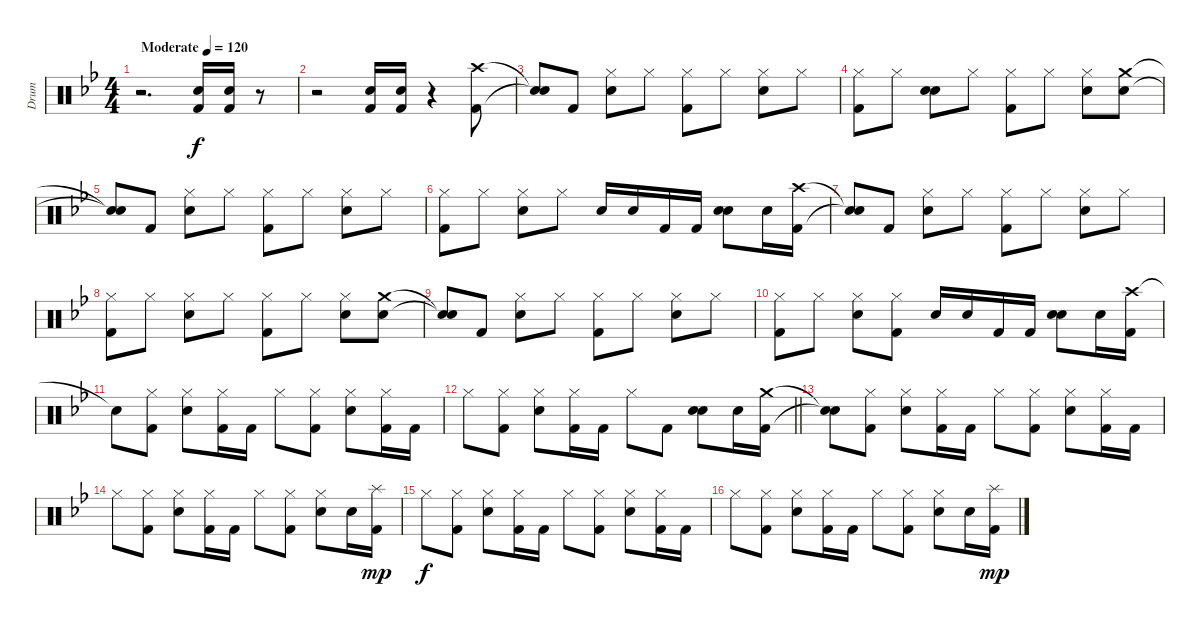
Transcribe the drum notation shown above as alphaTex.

\track ("Drum" "Drum") {instrument percussion}
\staff {score}
\articulation defaults
\ts (4 4)
\tempo (120 "Moderate")
\clef neutral
\ks gminor
r.2{d dy f} ("Electric Snare (hit)" "Kick (hit) 2").16 ("Electric Snare (hit)" "Kick (hit) 2").16 r.8 |
r.2 ("Electric Snare (hit)" "Kick (hit) 2").16 ("Electric Snare (hit)" "Kick (hit) 2").16 r.4 ("Crash high (hit)" "Kick (hit) 2").8 |
("Snare (hit)"{t} "Snare (hit)"{t}).8 "Kick (hit) 2".8 ("Hi-Hat (closed)" "Electric Snare (hit)").8 "Hi-Hat (closed)".8 ("Hi-Hat (closed)" "Kick (hit) 2").8 "Hi-Hat (closed)".8 ("Hi-Hat (closed)" "Electric Snare (hit)").8 "Hi-Hat (closed)".8 |
("Hi-Hat (closed)" "Kick (hit) 2").8 "Hi-Hat (closed)".8 ("Snare (hit)" "Electric Snare (hit)").8 "Hi-Hat (closed)".8 ("Hi-Hat (closed)" "Kick (hit) 2").8 "Hi-Hat (closed)".8 ("Hi-Hat (closed)" "Electric Snare (hit)").8 ("Crash medium (hit)" "Electric Snare (hit)").8 |
("Snare (hit)"{t} "Snare (hit)"{t}).8 "Kick (hit) 2".8 ("Hi-Hat (closed)" "Electric Snare (hit)").8 "Hi-Hat (closed)".8 ("Hi-Hat (closed)" "Kick (hit) 2").8 "Hi-Hat (closed)".8 ("Hi-Hat (closed)" "Electric Snare (hit)").8 "Hi-Hat (closed)".8 |
("Hi-Hat (closed)" "Kick (hit) 2").8 "Hi-Hat (closed)".8 ("Hi-Hat (closed)" "Electric Snare (hit)").8 "Hi-Hat (closed)".8 "Electric Snare (hit)".16 "Electric Snare (hit)".16 "Kick (hit) 2".16 "Kick (hit) 2".16 ("Electric Snare (hit)" "Electric Snare (hit)").8{bd 120} "Electric Snare (hit)".16 ("Crash high (hit)" "Kick (hit) 2").16 |
("Snare (hit)"{t} "Snare (hit)"{t}).8 "Kick (hit) 2".8 ("Hi-Hat (closed)" "Electric Snare (hit)").8 "Hi-Hat (closed)".8 ("Hi-Hat (closed)" "Kick (hit) 2").8 "Hi-Hat (closed)".8 ("Hi-Hat (closed)" "Electric Snare (hit)").8 "Hi-Hat (closed)".8 |
("Hi-Hat (closed)" "Kick (hit) 2").8 "Hi-Hat (closed)".8 ("Hi-Hat (closed)" "Electric Snare (hit)").8 "Hi-Hat (closed)".8 ("Hi-Hat (closed)" "Kick (hit) 2").8 "Hi-Hat (closed)".8 ("Hi-Hat (closed)" "Electric Snare (hit)").8 ("Crash medium (hit)" "Electric Snare (hit)").8 |
("Snare (hit)"{t} "Snare (hit)"{t}).8 "Kick (hit) 2".8 ("Hi-Hat (closed)" "Electric Snare (hit)").8 "Hi-Hat (closed)".8 ("Hi-Hat (closed)" "Kick (hit) 2").8 "Hi-Hat (closed)".8 ("Hi-Hat (closed)" "Electric Snare (hit)").8 "Hi-Hat (closed)".8 |
("Hi-Hat (closed)" "Kick (hit) 2").8 "Hi-Hat (closed)".8 ("Hi-Hat (closed)" "Electric Snare (hit)").8 ("Hi-Hat (closed)" "Kick (hit) 2").8 "Electric Snare (hit)".16 "Electric Snare (hit)".16 "Kick (hit) 2".16 "Kick (hit) 2".16 ("Electric Snare (hit)" "Electric Snare (hit)").8 "Electric Snare (hit)".16 ("Crash high (hit)" "Kick (hit) 2").16 |
"Snare (hit)"{t}.8 ("Hi-Hat (closed)" "Kick (hit) 2").8 ("Hi-Hat (closed)" "Electric Snare (hit)").8 ("Hi-Hat (closed)" "Kick (hit) 2").16 "Kick (hit) 2".16 "Hi-Hat (closed)".8 ("Hi-Hat (closed)" "Kick (hit) 2").8 ("Hi-Hat (closed)" "Electric Snare (hit)").8 ("Hi-Hat (closed)" "Kick (hit) 2").16 "Kick (hit) 2".16 |
\barLineRight lightlight "Hi-Hat (closed)".8
("Hi-Hat (closed)" "Kick (hit) 2").8 ("Hi-Hat (closed)" "Electric Snare (hit)").8 ("Hi-Hat (closed)" "Kick (hit) 2").16 "Kick (hit) 2".16 "Hi-Hat (closed)".8 "Kick (hit) 2".8 ("Electric Snare (hit)" "Electric Snare (hit)").8{bd 120} "Electric Snare (hit)".16 ("Crash medium (hit)" "Kick (hit) 2").16 |
("Snare (hit)"{t} "Snare (hit)"{t}).8 ("Hi-Hat (closed)" "Kick (hit) 2").8 ("Hi-Hat (closed)" "Electric Snare (hit)").8 ("Hi-Hat (closed)" "Kick (hit) 2").16 "Kick (hit) 2".16 "Hi-Hat (closed)".8 ("Hi-Hat (closed)" "Kick (hit) 2").8 ("Hi-Hat (closed)" "Electric Snare (hit)").8 ("Hi-Hat (closed)" "Kick (hit) 2").16 "Kick (hit) 2".16 |
"Hi-Hat (closed)".8 ("Hi-Hat (closed)" "Kick (hit) 2").8 ("Hi-Hat (closed)" "Electric Snare (hit)").8 ("Hi-Hat (closed)" "Kick (hit) 2").16 "Kick (hit) 2".16 "Hi-Hat (closed)".8 ("Hi-Hat (closed)" "Kick (hit) 2").8 ("Hi-Hat (closed)" "Electric Snare (hit)").8 "Electric Snare (hit)".16 ("Splash (hit)" "Kick (hit) 2").16{dy mp} |
"Hi-Hat (closed)".8{dy f} ("Hi-Hat (closed)" "Kick (hit) 2").8 ("Hi-Hat (closed)" "Electric Snare (hit)").8 ("Hi-Hat (closed)" "Kick (hit) 2").16 "Kick (hit) 2".16 "Hi-Hat (closed)".8 ("Hi-Hat (closed)" "Kick (hit) 2").8 ("Hi-Hat (closed)" "Electric Snare (hit)").8 ("Hi-Hat (closed)" "Kick (hit) 2").16 "Kick (hit) 2".16 |
"Hi-Hat (closed)".8 ("Hi-Hat (closed)" "Kick (hit) 2").8 ("Hi-Hat (closed)" "Electric Snare (hit)").8 ("Hi-Hat (closed)" "Kick (hit) 2").16 "Kick (hit) 2".16 "Hi-Hat (closed)".8 ("Hi-Hat (closed)" "Kick (hit) 2").8 ("Hi-Hat (closed)" "Electric Snare (hit)").8 "Electric Snare (hit)".16 ("Splash (hit)" "Kick (hit) 2").16{dy mp}
